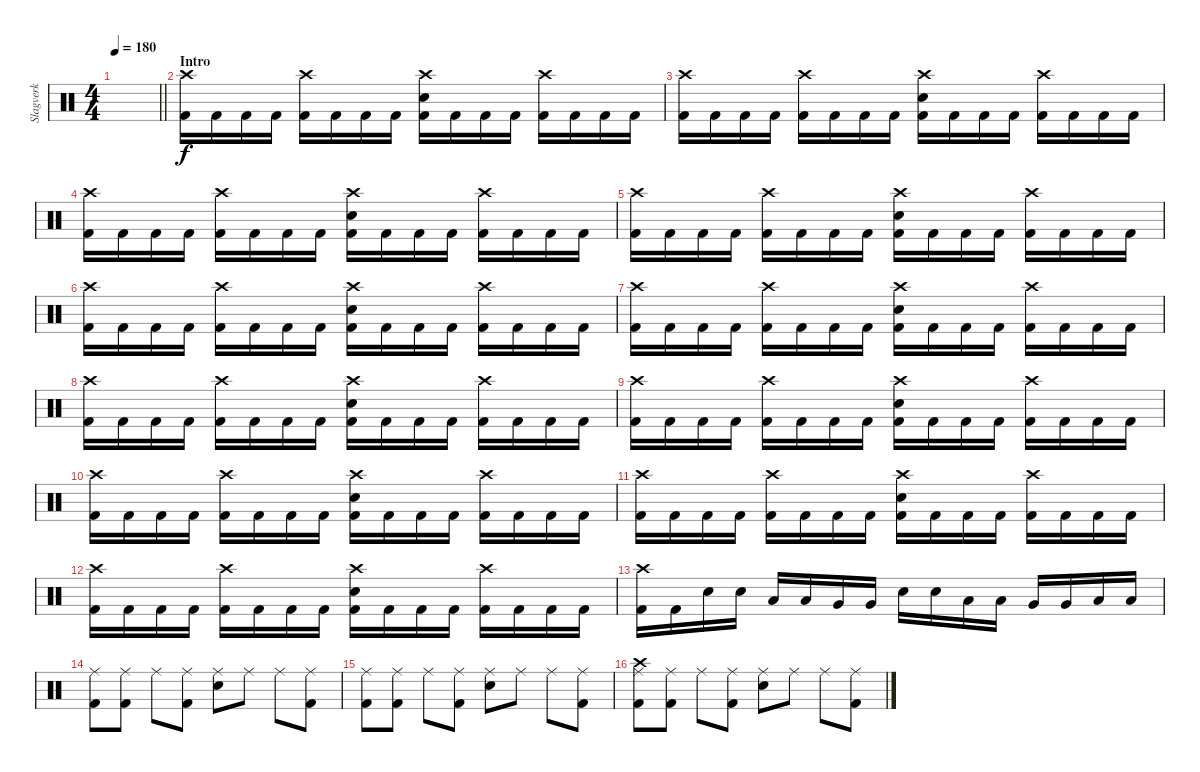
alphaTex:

\track ("Slagverk" "Slagverk") {instrument percussion}
\staff {score}
\articulation defaults
\ts (4 4)
\tempo 180
\clef neutral
\barLineRight lightlight
\ks c
|
\section ("" "Intro")
("Crash high (hit)" "Kick (hit) 2").16 "Kick (hit) 2".16 "Kick (hit) 2".16 "Kick (hit) 2".16 ("Crash high (hit)" "Kick (hit) 2").16 "Kick (hit) 2".16 "Kick (hit) 2".16 "Kick (hit) 2".16 ("Crash high (hit)" "Electric Snare (hit)" "Kick (hit) 2").16 "Kick (hit) 2".16 "Kick (hit) 2".16 "Kick (hit) 2".16 ("Crash high (hit)" "Kick (hit) 2").16 "Kick (hit) 2".16 "Kick (hit) 2".16 "Kick (hit) 2".16 |
("Crash high (hit)" "Kick (hit) 2").16 "Kick (hit) 2".16 "Kick (hit) 2".16 "Kick (hit) 2".16 ("Crash high (hit)" "Kick (hit) 2").16 "Kick (hit) 2".16 "Kick (hit) 2".16 "Kick (hit) 2".16 ("Crash high (hit)" "Electric Snare (hit)" "Kick (hit) 2").16 "Kick (hit) 2".16 "Kick (hit) 2".16 "Kick (hit) 2".16 ("Crash high (hit)" "Kick (hit) 2").16 "Kick (hit) 2".16 "Kick (hit) 2".16 "Kick (hit) 2".16 |
("Crash high (hit)" "Kick (hit) 2").16 "Kick (hit) 2".16 "Kick (hit) 2".16 "Kick (hit) 2".16 ("Crash high (hit)" "Kick (hit) 2").16 "Kick (hit) 2".16 "Kick (hit) 2".16 "Kick (hit) 2".16 ("Crash high (hit)" "Electric Snare (hit)" "Kick (hit) 2").16 "Kick (hit) 2".16 "Kick (hit) 2".16 "Kick (hit) 2".16 ("Crash high (hit)" "Kick (hit) 2").16 "Kick (hit) 2".16 "Kick (hit) 2".16 "Kick (hit) 2".16 |
("Crash high (hit)" "Kick (hit) 2").16 "Kick (hit) 2".16 "Kick (hit) 2".16 "Kick (hit) 2".16 ("Crash high (hit)" "Kick (hit) 2").16 "Kick (hit) 2".16 "Kick (hit) 2".16 "Kick (hit) 2".16 ("Crash high (hit)" "Electric Snare (hit)" "Kick (hit) 2").16 "Kick (hit) 2".16 "Kick (hit) 2".16 "Kick (hit) 2".16 ("Crash high (hit)" "Kick (hit) 2").16 "Kick (hit) 2".16 "Kick (hit) 2".16 "Kick (hit) 2".16 |
("Crash high (hit)" "Kick (hit) 2").16 "Kick (hit) 2".16 "Kick (hit) 2".16 "Kick (hit) 2".16 ("Crash high (hit)" "Kick (hit) 2").16 "Kick (hit) 2".16 "Kick (hit) 2".16 "Kick (hit) 2".16 ("Crash high (hit)" "Electric Snare (hit)" "Kick (hit) 2").16 "Kick (hit) 2".16 "Kick (hit) 2".16 "Kick (hit) 2".16 ("Crash high (hit)" "Kick (hit) 2").16 "Kick (hit) 2".16 "Kick (hit) 2".16 "Kick (hit) 2".16 |
("Crash high (hit)" "Kick (hit) 2").16 "Kick (hit) 2".16 "Kick (hit) 2".16 "Kick (hit) 2".16 ("Crash high (hit)" "Kick (hit) 2").16 "Kick (hit) 2".16 "Kick (hit) 2".16 "Kick (hit) 2".16 ("Crash high (hit)" "Electric Snare (hit)" "Kick (hit) 2").16 "Kick (hit) 2".16 "Kick (hit) 2".16 "Kick (hit) 2".16 ("Crash high (hit)" "Kick (hit) 2").16 "Kick (hit) 2".16 "Kick (hit) 2".16 "Kick (hit) 2".16 |
("Crash high (hit)" "Kick (hit) 2").16 "Kick (hit) 2".16 "Kick (hit) 2".16 "Kick (hit) 2".16 ("Crash high (hit)" "Kick (hit) 2").16 "Kick (hit) 2".16 "Kick (hit) 2".16 "Kick (hit) 2".16 ("Crash high (hit)" "Electric Snare (hit)" "Kick (hit) 2").16 "Kick (hit) 2".16 "Kick (hit) 2".16 "Kick (hit) 2".16 ("Crash high (hit)" "Kick (hit) 2").16 "Kick (hit) 2".16 "Kick (hit) 2".16 "Kick (hit) 2".16 |
("Crash high (hit)" "Kick (hit) 2").16 "Kick (hit) 2".16 "Kick (hit) 2".16 "Kick (hit) 2".16 ("Crash high (hit)" "Kick (hit) 2").16 "Kick (hit) 2".16 "Kick (hit) 2".16 "Kick (hit) 2".16 ("Crash high (hit)" "Electric Snare (hit)" "Kick (hit) 2").16 "Kick (hit) 2".16 "Kick (hit) 2".16 "Kick (hit) 2".16 ("Crash high (hit)" "Kick (hit) 2").16 "Kick (hit) 2".16 "Kick (hit) 2".16 "Kick (hit) 2".16 |
("Crash high (hit)" "Kick (hit) 2").16 "Kick (hit) 2".16 "Kick (hit) 2".16 "Kick (hit) 2".16 ("Crash high (hit)" "Kick (hit) 2").16 "Kick (hit) 2".16 "Kick (hit) 2".16 "Kick (hit) 2".16 ("Crash high (hit)" "Electric Snare (hit)" "Kick (hit) 2").16 "Kick (hit) 2".16 "Kick (hit) 2".16 "Kick (hit) 2".16 ("Crash high (hit)" "Kick (hit) 2").16 "Kick (hit) 2".16 "Kick (hit) 2".16 "Kick (hit) 2".16 |
("Crash high (hit)" "Kick (hit) 2").16 "Kick (hit) 2".16 "Kick (hit) 2".16 "Kick (hit) 2".16 ("Crash high (hit)" "Kick (hit) 2").16 "Kick (hit) 2".16 "Kick (hit) 2".16 "Kick (hit) 2".16 ("Crash high (hit)" "Electric Snare (hit)" "Kick (hit) 2").16 "Kick (hit) 2".16 "Kick (hit) 2".16 "Kick (hit) 2".16 ("Crash high (hit)" "Kick (hit) 2").16 "Kick (hit) 2".16 "Kick (hit) 2".16 "Kick (hit) 2".16 |
("Crash high (hit)" "Kick (hit) 2").16 "Kick (hit) 2".16 "Kick (hit) 2".16 "Kick (hit) 2".16 ("Crash high (hit)" "Kick (hit) 2").16 "Kick (hit) 2".16 "Kick (hit) 2".16 "Kick (hit) 2".16 ("Crash high (hit)" "Electric Snare (hit)" "Kick (hit) 2").16 "Kick (hit) 2".16 "Kick (hit) 2".16 "Kick (hit) 2".16 ("Crash high (hit)" "Kick (hit) 2").16 "Kick (hit) 2".16 "Kick (hit) 2".16 "Kick (hit) 2".16 |
("Crash high (hit)" "Kick (hit) 2").16 "Kick (hit) 2".16 "Electric Snare (hit)".16 "Electric Snare (hit)".16 "Low Tom (hit)".16 "Low Tom (hit)".16 "Very Low Tom (hit)".16 "Very Low Tom (hit)".16 "Electric Snare (hit)".16 "Electric Snare (hit)".16 "Low Tom (hit)".16 "Low Tom (hit)".16 "Very Low Tom (hit)".16 "Very Low Tom (hit)".16 "Low Floor Tom (hit)".16 "Low Floor Tom (hit)".16 |
("Ride (middle)" "Kick (hit) 2").8 ("Ride (middle)" "Kick (hit) 2").8 "Ride (middle)".8 ("Ride (middle)" "Kick (hit) 2").8 ("Ride (middle)" "Electric Snare (hit)").8 "Ride (middle)".8 "Ride (middle)".8 ("Ride (middle)" "Kick (hit) 2").8 |
("Ride (middle)" "Kick (hit) 2").8 ("Ride (middle)" "Kick (hit) 2").8 "Ride (middle)".8 ("Ride (middle)" "Kick (hit) 2").8 ("Ride (middle)" "Electric Snare (hit)").8 "Ride (middle)".8 "Ride (middle)".8 ("Ride (middle)" "Kick (hit) 2").8 |
("Crash high (hit)" "Ride (middle)" "Kick (hit) 2").8 ("Ride (middle)" "Kick (hit) 2").8 "Ride (middle)".8 ("Ride (middle)" "Kick (hit) 2").8 ("Ride (middle)" "Electric Snare (hit)").8 "Ride (middle)".8 "Ride (middle)".8 ("Ride (middle)" "Kick (hit) 2").8
